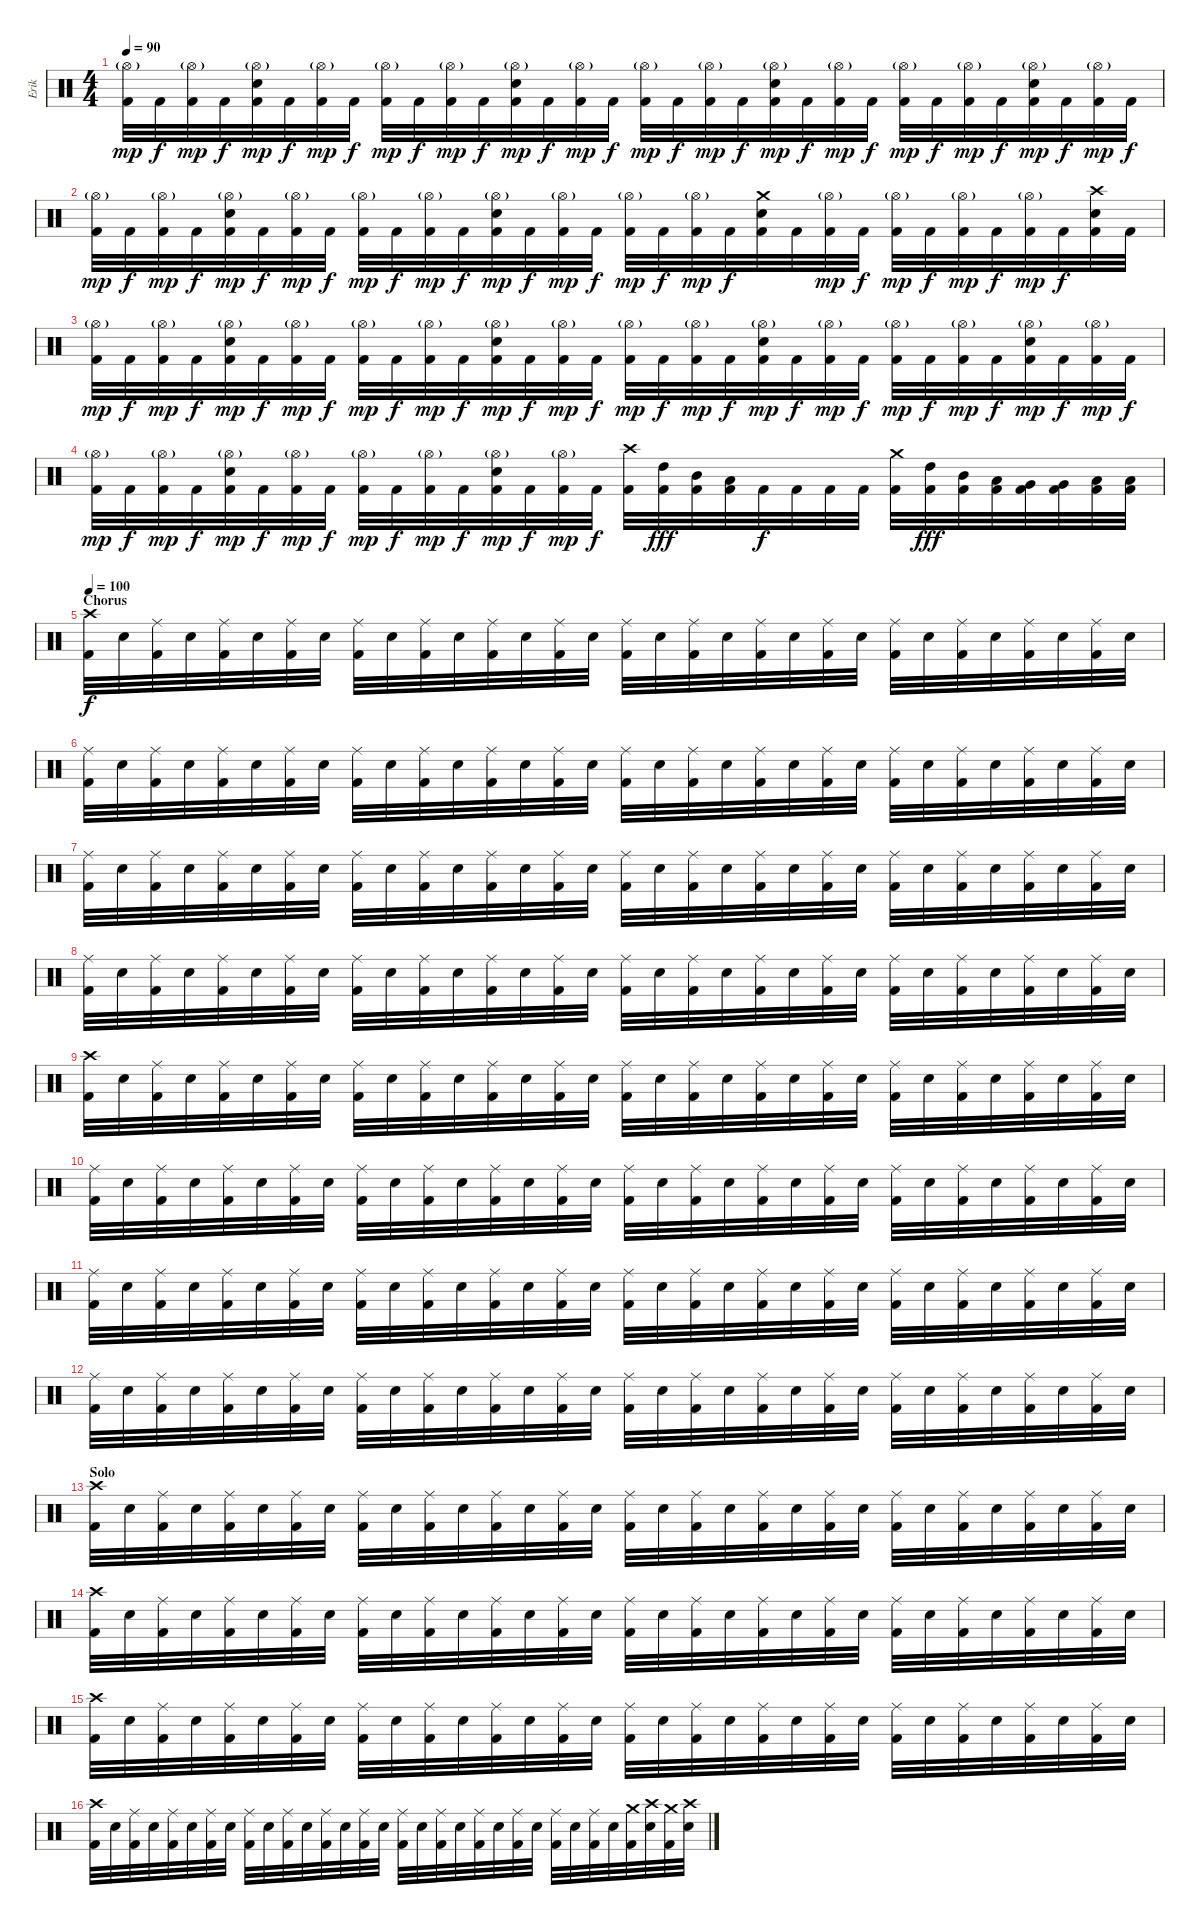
\track ("Erik" "Erik") {instrument percussion}
\staff {score}
\articulation defaults
\ts (4 4)
\tempo 90
\clef neutral
\ks c
("Hi-Hat (open)"{g} "Kick (hit) 2").32{dy mp} "Kick (hit) 2".32{dy f} ("Hi-Hat (open)"{g} "Kick (hit) 2").32{dy mp} "Kick (hit) 2".32{dy f} ("Hi-Hat (open)"{g} "Electric Snare (hit)" "Kick (hit) 2").32{dy mp} "Kick (hit) 2".32{dy f} ("Hi-Hat (open)"{g} "Kick (hit) 2").32{dy mp} "Kick (hit) 2".32{dy f} ("Hi-Hat (open)"{g} "Kick (hit) 2").32{dy mp} "Kick (hit) 2".32{dy f} ("Hi-Hat (open)"{g} "Kick (hit) 2").32{dy mp} "Kick (hit) 2".32{dy f} ("Hi-Hat (open)"{g} "Electric Snare (hit)" "Kick (hit) 2").32{dy mp} "Kick (hit) 2".32{dy f} ("Hi-Hat (open)"{g} "Kick (hit) 2").32{dy mp} "Kick (hit) 2".32{dy f} ("Hi-Hat (open)"{g} "Kick (hit) 2").32{dy mp} "Kick (hit) 2".32{dy f} ("Hi-Hat (open)"{g} "Kick (hit) 2").32{dy mp} "Kick (hit) 2".32{dy f} ("Hi-Hat (open)"{g} "Electric Snare (hit)" "Kick (hit) 2").32{dy mp} "Kick (hit) 2".32{dy f} ("Hi-Hat (open)"{g} "Kick (hit) 2").32{dy mp} "Kick (hit) 2".32{dy f} ("Hi-Hat (open)"{g} "Kick (hit) 2").32{dy mp} "Kick (hit) 2".32{dy f} ("Hi-Hat (open)"{g} "Kick (hit) 2").32{dy mp} "Kick (hit) 2".32{dy f} ("Hi-Hat (open)"{g} "Electric Snare (hit)" "Kick (hit) 2").32{dy mp} "Kick (hit) 2".32{dy f} ("Hi-Hat (open)"{g} "Kick (hit) 2").32{dy mp} "Kick (hit) 2".32{dy f} |
("Hi-Hat (open)"{g} "Kick (hit) 2").32{dy mp} "Kick (hit) 2".32{dy f} ("Hi-Hat (open)"{g} "Kick (hit) 2").32{dy mp} "Kick (hit) 2".32{dy f} ("Hi-Hat (open)"{g} "Electric Snare (hit)" "Kick (hit) 2").32{dy mp} "Kick (hit) 2".32{dy f} ("Hi-Hat (open)"{g} "Kick (hit) 2").32{dy mp} "Kick (hit) 2".32{dy f} ("Hi-Hat (open)"{g} "Kick (hit) 2").32{dy mp} "Kick (hit) 2".32{dy f} ("Hi-Hat (open)"{g} "Kick (hit) 2").32{dy mp} "Kick (hit) 2".32{dy f} ("Hi-Hat (open)"{g} "Electric Snare (hit)" "Kick (hit) 2").32{dy mp} "Kick (hit) 2".32{dy f} ("Hi-Hat (open)"{g} "Kick (hit) 2").32{dy mp} "Kick (hit) 2".32{dy f} ("Hi-Hat (open)"{g} "Kick (hit) 2").32{dy mp} "Kick (hit) 2".32{dy f} ("Hi-Hat (open)"{g} "Kick (hit) 2").32{dy mp} "Kick (hit) 2".32{dy f} ("Crash medium (hit)" "Electric Snare (hit)" "Kick (hit) 2").32 "Kick (hit) 2".32 ("Hi-Hat (open)"{g} "Kick (hit) 2").32{dy mp} "Kick (hit) 2".32{dy f} ("Hi-Hat (open)"{g} "Kick (hit) 2").32{dy mp} "Kick (hit) 2".32{dy f} ("Hi-Hat (open)"{g} "Kick (hit) 2").32{dy mp} "Kick (hit) 2".32{dy f} ("Hi-Hat (open)"{g} "Kick (hit) 2").32{dy mp} "Kick (hit) 2".32{dy f} ("Crash high (hit)" "Electric Snare (hit)" "Kick (hit) 2").32 "Kick (hit) 2".32 |
("Hi-Hat (open)"{g} "Kick (hit) 2").32{dy mp} "Kick (hit) 2".32{dy f} ("Hi-Hat (open)"{g} "Kick (hit) 2").32{dy mp} "Kick (hit) 2".32{dy f} ("Hi-Hat (open)"{g} "Electric Snare (hit)" "Kick (hit) 2").32{dy mp} "Kick (hit) 2".32{dy f} ("Hi-Hat (open)"{g} "Kick (hit) 2").32{dy mp} "Kick (hit) 2".32{dy f} ("Hi-Hat (open)"{g} "Kick (hit) 2").32{dy mp} "Kick (hit) 2".32{dy f} ("Hi-Hat (open)"{g} "Kick (hit) 2").32{dy mp} "Kick (hit) 2".32{dy f} ("Hi-Hat (open)"{g} "Electric Snare (hit)" "Kick (hit) 2").32{dy mp} "Kick (hit) 2".32{dy f} ("Hi-Hat (open)"{g} "Kick (hit) 2").32{dy mp} "Kick (hit) 2".32{dy f} ("Hi-Hat (open)"{g} "Kick (hit) 2").32{dy mp} "Kick (hit) 2".32{dy f} ("Hi-Hat (open)"{g} "Kick (hit) 2").32{dy mp} "Kick (hit) 2".32{dy f} ("Hi-Hat (open)"{g} "Electric Snare (hit)" "Kick (hit) 2").32{dy mp} "Kick (hit) 2".32{dy f} ("Hi-Hat (open)"{g} "Kick (hit) 2").32{dy mp} "Kick (hit) 2".32{dy f} ("Hi-Hat (open)"{g} "Kick (hit) 2").32{dy mp} "Kick (hit) 2".32{dy f} ("Hi-Hat (open)"{g} "Kick (hit) 2").32{dy mp} "Kick (hit) 2".32{dy f} ("Hi-Hat (open)"{g} "Electric Snare (hit)" "Kick (hit) 2").32{dy mp} "Kick (hit) 2".32{dy f} ("Hi-Hat (open)"{g} "Kick (hit) 2").32{dy mp} "Kick (hit) 2".32{dy f} |
("Hi-Hat (open)"{g} "Kick (hit) 2").32{dy mp} "Kick (hit) 2".32{dy f} ("Hi-Hat (open)"{g} "Kick (hit) 2").32{dy mp} "Kick (hit) 2".32{dy f} ("Hi-Hat (open)"{g} "Electric Snare (hit)" "Kick (hit) 2").32{dy mp} "Kick (hit) 2".32{dy f} ("Hi-Hat (open)"{g} "Kick (hit) 2").32{dy mp} "Kick (hit) 2".32{dy f} ("Hi-Hat (open)"{g} "Kick (hit) 2").32{dy mp} "Kick (hit) 2".32{dy f} ("Hi-Hat (open)"{g} "Kick (hit) 2").32{dy mp} "Kick (hit) 2".32{dy f} ("Hi-Hat (open)"{g} "Electric Snare (hit)" "Kick (hit) 2").32{dy mp} "Kick (hit) 2".32{dy f} ("Hi-Hat (open)"{g} "Kick (hit) 2").32{dy mp} "Kick (hit) 2".32{dy f} ("Crash high (hit)" "Kick (hit) 2").32 ("High Tom (hit)" "Kick (hit) 2").32{dy fff} ("Mid Tom (hit)" "Kick (hit) 2").32 ("Low Tom (hit)" "Kick (hit) 2").32 "Kick (hit) 2".32{dy f} "Kick (hit) 2".32 "Kick (hit) 2".32 "Kick (hit) 2".32 ("Crash medium (hit)" "Kick (hit) 2").32 ("High Tom (hit)" "Kick (hit) 2").32{dy fff} ("Mid Tom (hit)" "Kick (hit) 2").32 ("Low Tom (hit)" "Kick (hit) 2").32 ("Very Low Tom (hit)" "Kick (hit) 2").32 ("Very Low Tom (hit)" "Kick (hit) 2").32 ("Low Floor Tom (hit)" "Kick (hit) 2").32 ("Low Floor Tom (hit)" "Kick (hit) 2").32 |
\section ("" "Chorus")
\tempo 100
("Crash high (hit)" "Kick (hit) 2").32{dy f} "Electric Snare (hit)".32 ("Ride (middle)" "Kick (hit) 2").32 "Electric Snare (hit)".32 ("Ride (middle)" "Kick (hit) 2").32 "Electric Snare (hit)".32 ("Ride (middle)" "Kick (hit) 2").32 "Electric Snare (hit)".32 ("Ride (middle)" "Kick (hit) 2").32 "Electric Snare (hit)".32 ("Ride (middle)" "Kick (hit) 2").32 "Electric Snare (hit)".32 ("Ride (middle)" "Kick (hit) 2").32 "Electric Snare (hit)".32 ("Ride (middle)" "Kick (hit) 2").32 "Electric Snare (hit)".32 ("Ride (middle)" "Kick (hit) 2").32 "Electric Snare (hit)".32 ("Ride (middle)" "Kick (hit) 2").32 "Electric Snare (hit)".32 ("Ride (middle)" "Kick (hit) 2").32 "Electric Snare (hit)".32 ("Ride (middle)" "Kick (hit) 2").32 "Electric Snare (hit)".32 ("Ride (middle)" "Kick (hit) 2").32 "Electric Snare (hit)".32 ("Ride (middle)" "Kick (hit) 2").32 "Electric Snare (hit)".32 ("Ride (middle)" "Kick (hit) 2").32 "Electric Snare (hit)".32 ("Ride (middle)" "Kick (hit) 2").32 "Electric Snare (hit)".32 |
("Ride (middle)" "Kick (hit) 2").32 "Electric Snare (hit)".32 ("Ride (middle)" "Kick (hit) 2").32 "Electric Snare (hit)".32 ("Ride (middle)" "Kick (hit) 2").32 "Electric Snare (hit)".32 ("Ride (middle)" "Kick (hit) 2").32 "Electric Snare (hit)".32 ("Ride (middle)" "Kick (hit) 2").32 "Electric Snare (hit)".32 ("Ride (middle)" "Kick (hit) 2").32 "Electric Snare (hit)".32 ("Ride (middle)" "Kick (hit) 2").32 "Electric Snare (hit)".32 ("Ride (middle)" "Kick (hit) 2").32 "Electric Snare (hit)".32 ("Ride (middle)" "Kick (hit) 2").32 "Electric Snare (hit)".32 ("Ride (middle)" "Kick (hit) 2").32 "Electric Snare (hit)".32 ("Ride (middle)" "Kick (hit) 2").32 "Electric Snare (hit)".32 ("Ride (middle)" "Kick (hit) 2").32 "Electric Snare (hit)".32 ("Ride (middle)" "Kick (hit) 2").32 "Electric Snare (hit)".32 ("Ride (middle)" "Kick (hit) 2").32 "Electric Snare (hit)".32 ("Ride (middle)" "Kick (hit) 2").32 "Electric Snare (hit)".32 ("Ride (middle)" "Kick (hit) 2").32 "Electric Snare (hit)".32 |
("Ride (middle)" "Kick (hit) 2").32 "Electric Snare (hit)".32 ("Ride (middle)" "Kick (hit) 2").32 "Electric Snare (hit)".32 ("Ride (middle)" "Kick (hit) 2").32 "Electric Snare (hit)".32 ("Ride (middle)" "Kick (hit) 2").32 "Electric Snare (hit)".32 ("Ride (middle)" "Kick (hit) 2").32 "Electric Snare (hit)".32 ("Ride (middle)" "Kick (hit) 2").32 "Electric Snare (hit)".32 ("Ride (middle)" "Kick (hit) 2").32 "Electric Snare (hit)".32 ("Ride (middle)" "Kick (hit) 2").32 "Electric Snare (hit)".32 ("Ride (middle)" "Kick (hit) 2").32 "Electric Snare (hit)".32 ("Ride (middle)" "Kick (hit) 2").32 "Electric Snare (hit)".32 ("Ride (middle)" "Kick (hit) 2").32 "Electric Snare (hit)".32 ("Ride (middle)" "Kick (hit) 2").32 "Electric Snare (hit)".32 ("Ride (middle)" "Kick (hit) 2").32 "Electric Snare (hit)".32 ("Ride (middle)" "Kick (hit) 2").32 "Electric Snare (hit)".32 ("Ride (middle)" "Kick (hit) 2").32 "Electric Snare (hit)".32 ("Ride (middle)" "Kick (hit) 2").32 "Electric Snare (hit)".32 |
("Ride (middle)" "Kick (hit) 2").32 "Electric Snare (hit)".32 ("Ride (middle)" "Kick (hit) 2").32 "Electric Snare (hit)".32 ("Ride (middle)" "Kick (hit) 2").32 "Electric Snare (hit)".32 ("Ride (middle)" "Kick (hit) 2").32 "Electric Snare (hit)".32 ("Ride (middle)" "Kick (hit) 2").32 "Electric Snare (hit)".32 ("Ride (middle)" "Kick (hit) 2").32 "Electric Snare (hit)".32 ("Ride (middle)" "Kick (hit) 2").32 "Electric Snare (hit)".32 ("Ride (middle)" "Kick (hit) 2").32 "Electric Snare (hit)".32 ("Ride (middle)" "Kick (hit) 2").32 "Electric Snare (hit)".32 ("Ride (middle)" "Kick (hit) 2").32 "Electric Snare (hit)".32 ("Ride (middle)" "Kick (hit) 2").32 "Electric Snare (hit)".32 ("Ride (middle)" "Kick (hit) 2").32 "Electric Snare (hit)".32 ("Ride (middle)" "Kick (hit) 2").32 "Electric Snare (hit)".32 ("Ride (middle)" "Kick (hit) 2").32 "Electric Snare (hit)".32 ("Ride (middle)" "Kick (hit) 2").32 "Electric Snare (hit)".32 ("Ride (middle)" "Kick (hit) 2").32 "Electric Snare (hit)".32 |
("Crash high (hit)" "Kick (hit) 2").32 "Electric Snare (hit)".32 ("Ride (middle)" "Kick (hit) 2").32 "Electric Snare (hit)".32 ("Ride (middle)" "Kick (hit) 2").32 "Electric Snare (hit)".32 ("Ride (middle)" "Kick (hit) 2").32 "Electric Snare (hit)".32 ("Ride (middle)" "Kick (hit) 2").32 "Electric Snare (hit)".32 ("Ride (middle)" "Kick (hit) 2").32 "Electric Snare (hit)".32 ("Ride (middle)" "Kick (hit) 2").32 "Electric Snare (hit)".32 ("Ride (middle)" "Kick (hit) 2").32 "Electric Snare (hit)".32 ("Ride (middle)" "Kick (hit) 2").32 "Electric Snare (hit)".32 ("Ride (middle)" "Kick (hit) 2").32 "Electric Snare (hit)".32 ("Ride (middle)" "Kick (hit) 2").32 "Electric Snare (hit)".32 ("Ride (middle)" "Kick (hit) 2").32 "Electric Snare (hit)".32 ("Ride (middle)" "Kick (hit) 2").32 "Electric Snare (hit)".32 ("Ride (middle)" "Kick (hit) 2").32 "Electric Snare (hit)".32 ("Ride (middle)" "Kick (hit) 2").32 "Electric Snare (hit)".32 ("Ride (middle)" "Kick (hit) 2").32 "Electric Snare (hit)".32 |
("Ride (middle)" "Kick (hit) 2").32 "Electric Snare (hit)".32 ("Ride (middle)" "Kick (hit) 2").32 "Electric Snare (hit)".32 ("Ride (middle)" "Kick (hit) 2").32 "Electric Snare (hit)".32 ("Ride (middle)" "Kick (hit) 2").32 "Electric Snare (hit)".32 ("Ride (middle)" "Kick (hit) 2").32 "Electric Snare (hit)".32 ("Ride (middle)" "Kick (hit) 2").32 "Electric Snare (hit)".32 ("Ride (middle)" "Kick (hit) 2").32 "Electric Snare (hit)".32 ("Ride (middle)" "Kick (hit) 2").32 "Electric Snare (hit)".32 ("Ride (middle)" "Kick (hit) 2").32 "Electric Snare (hit)".32 ("Ride (middle)" "Kick (hit) 2").32 "Electric Snare (hit)".32 ("Ride (middle)" "Kick (hit) 2").32 "Electric Snare (hit)".32 ("Ride (middle)" "Kick (hit) 2").32 "Electric Snare (hit)".32 ("Ride (middle)" "Kick (hit) 2").32 "Electric Snare (hit)".32 ("Ride (middle)" "Kick (hit) 2").32 "Electric Snare (hit)".32 ("Ride (middle)" "Kick (hit) 2").32 "Electric Snare (hit)".32 ("Ride (middle)" "Kick (hit) 2").32 "Electric Snare (hit)".32 |
("Ride (middle)" "Kick (hit) 2").32 "Electric Snare (hit)".32 ("Ride (middle)" "Kick (hit) 2").32 "Electric Snare (hit)".32 ("Ride (middle)" "Kick (hit) 2").32 "Electric Snare (hit)".32 ("Ride (middle)" "Kick (hit) 2").32 "Electric Snare (hit)".32 ("Ride (middle)" "Kick (hit) 2").32 "Electric Snare (hit)".32 ("Ride (middle)" "Kick (hit) 2").32 "Electric Snare (hit)".32 ("Ride (middle)" "Kick (hit) 2").32 "Electric Snare (hit)".32 ("Ride (middle)" "Kick (hit) 2").32 "Electric Snare (hit)".32 ("Ride (middle)" "Kick (hit) 2").32 "Electric Snare (hit)".32 ("Ride (middle)" "Kick (hit) 2").32 "Electric Snare (hit)".32 ("Ride (middle)" "Kick (hit) 2").32 "Electric Snare (hit)".32 ("Ride (middle)" "Kick (hit) 2").32 "Electric Snare (hit)".32 ("Ride (middle)" "Kick (hit) 2").32 "Electric Snare (hit)".32 ("Ride (middle)" "Kick (hit) 2").32 "Electric Snare (hit)".32 ("Ride (middle)" "Kick (hit) 2").32 "Electric Snare (hit)".32 ("Ride (middle)" "Kick (hit) 2").32 "Electric Snare (hit)".32 |
("Ride (middle)" "Kick (hit) 2").32 "Electric Snare (hit)".32 ("Ride (middle)" "Kick (hit) 2").32 "Electric Snare (hit)".32 ("Ride (middle)" "Kick (hit) 2").32 "Electric Snare (hit)".32 ("Ride (middle)" "Kick (hit) 2").32 "Electric Snare (hit)".32 ("Ride (middle)" "Kick (hit) 2").32 "Electric Snare (hit)".32 ("Ride (middle)" "Kick (hit) 2").32 "Electric Snare (hit)".32 ("Ride (middle)" "Kick (hit) 2").32 "Electric Snare (hit)".32 ("Ride (middle)" "Kick (hit) 2").32 "Electric Snare (hit)".32 ("Ride (middle)" "Kick (hit) 2").32 "Electric Snare (hit)".32 ("Ride (middle)" "Kick (hit) 2").32 "Electric Snare (hit)".32 ("Ride (middle)" "Kick (hit) 2").32 "Electric Snare (hit)".32 ("Ride (middle)" "Kick (hit) 2").32 "Electric Snare (hit)".32 ("Ride (middle)" "Kick (hit) 2").32 "Electric Snare (hit)".32 ("Ride (middle)" "Kick (hit) 2").32 "Electric Snare (hit)".32 ("Ride (middle)" "Kick (hit) 2").32 "Electric Snare (hit)".32 ("Ride (middle)" "Kick (hit) 2").32 "Electric Snare (hit)".32 |
\section ("" "Solo")
("Crash high (hit)" "Kick (hit) 2").32 "Electric Snare (hit)".32 ("Ride (middle)" "Kick (hit) 2").32 "Electric Snare (hit)".32 ("Ride (middle)" "Kick (hit) 2").32 "Electric Snare (hit)".32 ("Ride (middle)" "Kick (hit) 2").32 "Electric Snare (hit)".32 ("Ride (middle)" "Kick (hit) 2").32 "Electric Snare (hit)".32 ("Ride (middle)" "Kick (hit) 2").32 "Electric Snare (hit)".32 ("Ride (middle)" "Kick (hit) 2").32 "Electric Snare (hit)".32 ("Ride (middle)" "Kick (hit) 2").32 "Electric Snare (hit)".32 ("Ride (middle)" "Kick (hit) 2").32 "Electric Snare (hit)".32 ("Ride (middle)" "Kick (hit) 2").32 "Electric Snare (hit)".32 ("Ride (middle)" "Kick (hit) 2").32 "Electric Snare (hit)".32 ("Ride (middle)" "Kick (hit) 2").32 "Electric Snare (hit)".32 ("Ride (middle)" "Kick (hit) 2").32 "Electric Snare (hit)".32 ("Ride (middle)" "Kick (hit) 2").32 "Electric Snare (hit)".32 ("Ride (middle)" "Kick (hit) 2").32 "Electric Snare (hit)".32 ("Ride (middle)" "Kick (hit) 2").32 "Electric Snare (hit)".32 |
("Crash high (hit)" "Kick (hit) 2").32 "Electric Snare (hit)".32 ("Ride (middle)" "Kick (hit) 2").32 "Electric Snare (hit)".32 ("Ride (middle)" "Kick (hit) 2").32 "Electric Snare (hit)".32 ("Ride (middle)" "Kick (hit) 2").32 "Electric Snare (hit)".32 ("Ride (middle)" "Kick (hit) 2").32 "Electric Snare (hit)".32 ("Ride (middle)" "Kick (hit) 2").32 "Electric Snare (hit)".32 ("Ride (middle)" "Kick (hit) 2").32 "Electric Snare (hit)".32 ("Ride (middle)" "Kick (hit) 2").32 "Electric Snare (hit)".32 ("Ride (middle)" "Kick (hit) 2").32 "Electric Snare (hit)".32 ("Ride (middle)" "Kick (hit) 2").32 "Electric Snare (hit)".32 ("Ride (middle)" "Kick (hit) 2").32 "Electric Snare (hit)".32 ("Ride (middle)" "Kick (hit) 2").32 "Electric Snare (hit)".32 ("Ride (middle)" "Kick (hit) 2").32 "Electric Snare (hit)".32 ("Ride (middle)" "Kick (hit) 2").32 "Electric Snare (hit)".32 ("Ride (middle)" "Kick (hit) 2").32 "Electric Snare (hit)".32 ("Ride (middle)" "Kick (hit) 2").32 "Electric Snare (hit)".32 |
("Crash high (hit)" "Kick (hit) 2").32 "Electric Snare (hit)".32 ("Ride (middle)" "Kick (hit) 2").32 "Electric Snare (hit)".32 ("Ride (middle)" "Kick (hit) 2").32 "Electric Snare (hit)".32 ("Ride (middle)" "Kick (hit) 2").32 "Electric Snare (hit)".32 ("Ride (middle)" "Kick (hit) 2").32 "Electric Snare (hit)".32 ("Ride (middle)" "Kick (hit) 2").32 "Electric Snare (hit)".32 ("Ride (middle)" "Kick (hit) 2").32 "Electric Snare (hit)".32 ("Ride (middle)" "Kick (hit) 2").32 "Electric Snare (hit)".32 ("Ride (middle)" "Kick (hit) 2").32 "Electric Snare (hit)".32 ("Ride (middle)" "Kick (hit) 2").32 "Electric Snare (hit)".32 ("Ride (middle)" "Kick (hit) 2").32 "Electric Snare (hit)".32 ("Ride (middle)" "Kick (hit) 2").32 "Electric Snare (hit)".32 ("Ride (middle)" "Kick (hit) 2").32 "Electric Snare (hit)".32 ("Ride (middle)" "Kick (hit) 2").32 "Electric Snare (hit)".32 ("Ride (middle)" "Kick (hit) 2").32 "Electric Snare (hit)".32 ("Ride (middle)" "Kick (hit) 2").32 "Electric Snare (hit)".32 |
("Crash high (hit)" "Kick (hit) 2").32 "Electric Snare (hit)".32 ("Ride (middle)" "Kick (hit) 2").32 "Electric Snare (hit)".32 ("Ride (middle)" "Kick (hit) 2").32 "Electric Snare (hit)".32 ("Ride (middle)" "Kick (hit) 2").32 "Electric Snare (hit)".32 ("Ride (middle)" "Kick (hit) 2").32 "Electric Snare (hit)".32 ("Ride (middle)" "Kick (hit) 2").32 "Electric Snare (hit)".32 ("Ride (middle)" "Kick (hit) 2").32 "Electric Snare (hit)".32 ("Ride (middle)" "Kick (hit) 2").32 "Electric Snare (hit)".32 ("Ride (middle)" "Kick (hit) 2").32 "Electric Snare (hit)".32 ("Ride (middle)" "Kick (hit) 2").32 "Electric Snare (hit)".32 ("Ride (middle)" "Kick (hit) 2").32 "Electric Snare (hit)".32 ("Ride (middle)" "Kick (hit) 2").32 "Electric Snare (hit)".32 ("Ride (middle)" "Kick (hit) 2").32 "Electric Snare (hit)".32 ("Ride (middle)" "Kick (hit) 2").32 "Electric Snare (hit)".32 ("Crash medium (hit)" "Kick (hit) 2").32 ("Crash high (hit)" "Electric Snare (hit)").32 ("Crash medium (hit)" "Kick (hit) 2").32 ("Crash high (hit)" "Electric Snare (hit)").32
